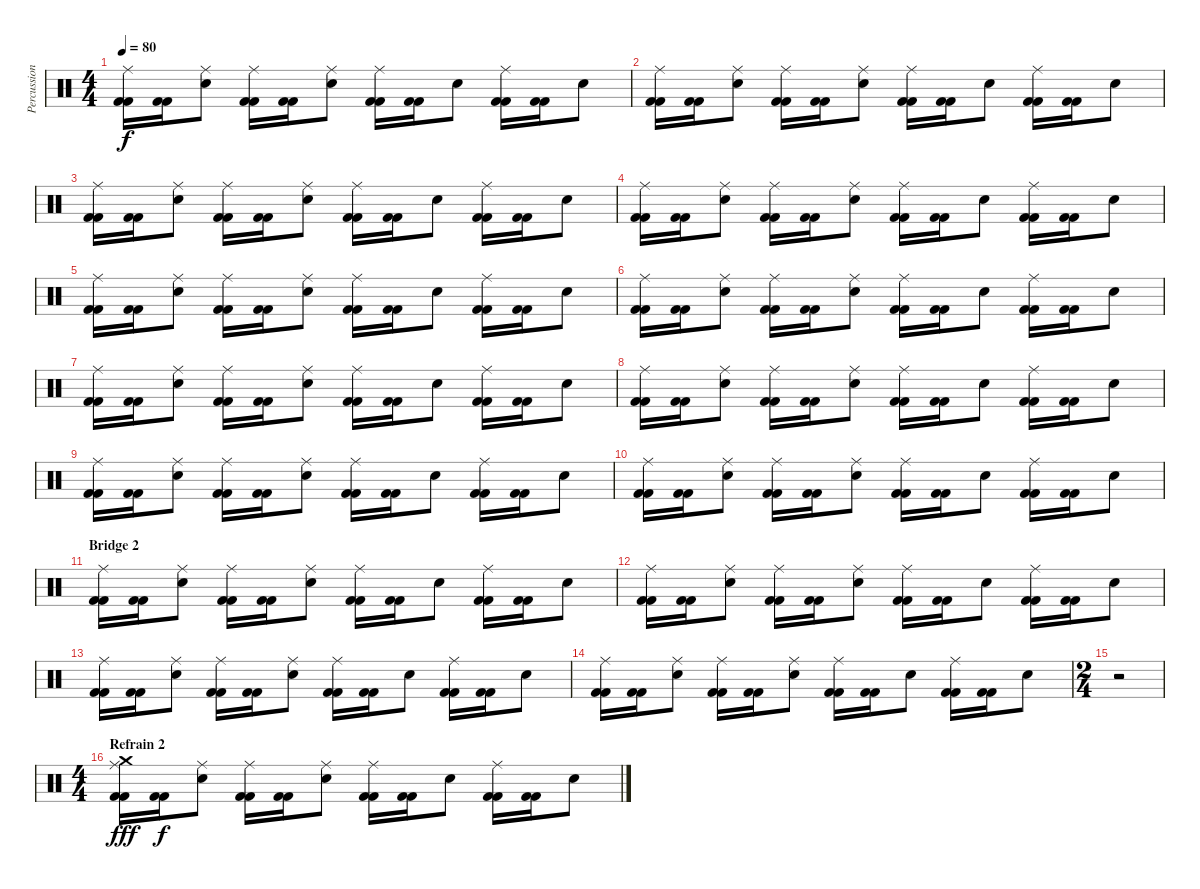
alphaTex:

\track ("Percussions" "Percussion") {instrument percussion}
\staff {score}
\articulation defaults
\ts (4 4)
\tempo 80
\clef neutral
\ks c
("Kick (hit) 2" "Kick (hit) 2" "Ride (middle)").16{dy f} ("Kick (hit) 2" "Kick (hit) 2").16 ("Snare (hit) 2" "Ride (middle)").8 ("Kick (hit) 2" "Kick (hit) 2" "Ride (middle)").16 ("Kick (hit) 2" "Kick (hit) 2").16 ("Snare (hit) 2" "Ride (middle)").8 ("Kick (hit) 2" "Kick (hit) 2" "Ride (middle)").16 ("Kick (hit) 2" "Kick (hit) 2").16 "Snare (hit) 2".8 ("Kick (hit) 2" "Kick (hit) 2" "Ride (middle)").16 ("Kick (hit) 2" "Kick (hit) 2").16 "Snare (hit) 2".8 |
("Kick (hit) 2" "Kick (hit) 2" "Ride (middle)").16 ("Kick (hit) 2" "Kick (hit) 2").16 ("Snare (hit) 2" "Ride (middle)").8 ("Kick (hit) 2" "Kick (hit) 2" "Ride (middle)").16 ("Kick (hit) 2" "Kick (hit) 2").16 ("Snare (hit) 2" "Ride (middle)").8 ("Kick (hit) 2" "Kick (hit) 2" "Ride (middle)").16 ("Kick (hit) 2" "Kick (hit) 2").16 "Snare (hit) 2".8 ("Kick (hit) 2" "Kick (hit) 2" "Ride (middle)").16 ("Kick (hit) 2" "Kick (hit) 2").16 "Snare (hit) 2".8 |
("Kick (hit) 2" "Kick (hit) 2" "Ride (middle)").16 ("Kick (hit) 2" "Kick (hit) 2").16 ("Snare (hit) 2" "Ride (middle)").8 ("Kick (hit) 2" "Kick (hit) 2" "Ride (middle)").16 ("Kick (hit) 2" "Kick (hit) 2").16 ("Snare (hit) 2" "Ride (middle)").8 ("Kick (hit) 2" "Kick (hit) 2" "Ride (middle)").16 ("Kick (hit) 2" "Kick (hit) 2").16 "Snare (hit) 2".8 ("Kick (hit) 2" "Kick (hit) 2" "Ride (middle)").16 ("Kick (hit) 2" "Kick (hit) 2").16 "Snare (hit) 2".8 |
("Kick (hit) 2" "Kick (hit) 2" "Ride (middle)").16 ("Kick (hit) 2" "Kick (hit) 2").16 ("Snare (hit) 2" "Ride (middle)").8 ("Kick (hit) 2" "Kick (hit) 2" "Ride (middle)").16 ("Kick (hit) 2" "Kick (hit) 2").16 ("Snare (hit) 2" "Ride (middle)").8 ("Kick (hit) 2" "Kick (hit) 2" "Ride (middle)").16 ("Kick (hit) 2" "Kick (hit) 2").16 "Snare (hit) 2".8 ("Kick (hit) 2" "Kick (hit) 2" "Ride (middle)").16 ("Kick (hit) 2" "Kick (hit) 2").16 "Snare (hit) 2".8 |
("Kick (hit) 2" "Kick (hit) 2" "Ride (middle)").16 ("Kick (hit) 2" "Kick (hit) 2").16 ("Snare (hit) 2" "Ride (middle)").8 ("Kick (hit) 2" "Kick (hit) 2" "Ride (middle)").16 ("Kick (hit) 2" "Kick (hit) 2").16 ("Snare (hit) 2" "Ride (middle)").8 ("Kick (hit) 2" "Kick (hit) 2" "Ride (middle)").16 ("Kick (hit) 2" "Kick (hit) 2").16 "Snare (hit) 2".8 ("Kick (hit) 2" "Kick (hit) 2" "Ride (middle)").16 ("Kick (hit) 2" "Kick (hit) 2").16 "Snare (hit) 2".8 |
("Kick (hit) 2" "Kick (hit) 2" "Ride (middle)").16 ("Kick (hit) 2" "Kick (hit) 2").16 ("Snare (hit) 2" "Ride (middle)").8 ("Kick (hit) 2" "Kick (hit) 2" "Ride (middle)").16 ("Kick (hit) 2" "Kick (hit) 2").16 ("Snare (hit) 2" "Ride (middle)").8 ("Kick (hit) 2" "Kick (hit) 2" "Ride (middle)").16 ("Kick (hit) 2" "Kick (hit) 2").16 "Snare (hit) 2".8 ("Kick (hit) 2" "Kick (hit) 2" "Ride (middle)").16 ("Kick (hit) 2" "Kick (hit) 2").16 "Snare (hit) 2".8 |
("Kick (hit) 2" "Kick (hit) 2" "Ride (middle)").16 ("Kick (hit) 2" "Kick (hit) 2").16 ("Snare (hit) 2" "Ride (middle)").8 ("Kick (hit) 2" "Kick (hit) 2" "Ride (middle)").16 ("Kick (hit) 2" "Kick (hit) 2").16 ("Snare (hit) 2" "Ride (middle)").8 ("Kick (hit) 2" "Kick (hit) 2" "Ride (middle)").16 ("Kick (hit) 2" "Kick (hit) 2").16 "Snare (hit) 2".8 ("Kick (hit) 2" "Kick (hit) 2" "Ride (middle)").16 ("Kick (hit) 2" "Kick (hit) 2").16 "Snare (hit) 2".8 |
("Kick (hit) 2" "Kick (hit) 2" "Ride (middle)").16 ("Kick (hit) 2" "Kick (hit) 2").16 ("Snare (hit) 2" "Ride (middle)").8 ("Kick (hit) 2" "Kick (hit) 2" "Ride (middle)").16 ("Kick (hit) 2" "Kick (hit) 2").16 ("Snare (hit) 2" "Ride (middle)").8 ("Kick (hit) 2" "Kick (hit) 2" "Ride (middle)").16 ("Kick (hit) 2" "Kick (hit) 2").16 "Snare (hit) 2".8 ("Kick (hit) 2" "Kick (hit) 2" "Ride (middle)").16 ("Kick (hit) 2" "Kick (hit) 2").16 "Snare (hit) 2".8 |
("Kick (hit) 2" "Kick (hit) 2" "Ride (middle)").16 ("Kick (hit) 2" "Kick (hit) 2").16 ("Snare (hit) 2" "Ride (middle)").8 ("Kick (hit) 2" "Kick (hit) 2" "Ride (middle)").16 ("Kick (hit) 2" "Kick (hit) 2").16 ("Snare (hit) 2" "Ride (middle)").8 ("Kick (hit) 2" "Kick (hit) 2" "Ride (middle)").16 ("Kick (hit) 2" "Kick (hit) 2").16 "Snare (hit) 2".8 ("Kick (hit) 2" "Kick (hit) 2" "Ride (middle)").16 ("Kick (hit) 2" "Kick (hit) 2").16 "Snare (hit) 2".8 |
("Kick (hit) 2" "Kick (hit) 2" "Ride (middle)").16 ("Kick (hit) 2" "Kick (hit) 2").16 ("Snare (hit) 2" "Ride (middle)").8 ("Kick (hit) 2" "Kick (hit) 2" "Ride (middle)").16 ("Kick (hit) 2" "Kick (hit) 2").16 ("Snare (hit) 2" "Ride (middle)").8 ("Kick (hit) 2" "Kick (hit) 2" "Ride (middle)").16 ("Kick (hit) 2" "Kick (hit) 2").16 "Snare (hit) 2".8 ("Kick (hit) 2" "Kick (hit) 2" "Ride (middle)").16 ("Kick (hit) 2" "Kick (hit) 2").16 "Snare (hit) 2".8 |
\section ("" "Bridge 2")
("Kick (hit) 2" "Kick (hit) 2" "Ride (middle)").16 ("Kick (hit) 2" "Kick (hit) 2").16 ("Snare (hit) 2" "Ride (middle)").8 ("Kick (hit) 2" "Kick (hit) 2" "Ride (middle)").16 ("Kick (hit) 2" "Kick (hit) 2").16 ("Snare (hit) 2" "Ride (middle)").8 ("Kick (hit) 2" "Kick (hit) 2" "Ride (middle)").16 ("Kick (hit) 2" "Kick (hit) 2").16 "Snare (hit) 2".8 ("Kick (hit) 2" "Kick (hit) 2" "Ride (middle)").16 ("Kick (hit) 2" "Kick (hit) 2").16 "Snare (hit) 2".8 |
("Kick (hit) 2" "Kick (hit) 2" "Ride (middle)").16 ("Kick (hit) 2" "Kick (hit) 2").16 ("Snare (hit) 2" "Ride (middle)").8 ("Kick (hit) 2" "Kick (hit) 2" "Ride (middle)").16 ("Kick (hit) 2" "Kick (hit) 2").16 ("Snare (hit) 2" "Ride (middle)").8 ("Kick (hit) 2" "Kick (hit) 2" "Ride (middle)").16 ("Kick (hit) 2" "Kick (hit) 2").16 "Snare (hit) 2".8 ("Kick (hit) 2" "Kick (hit) 2" "Ride (middle)").16 ("Kick (hit) 2" "Kick (hit) 2").16 "Snare (hit) 2".8 |
("Kick (hit) 2" "Kick (hit) 2" "Ride (middle)").16 ("Kick (hit) 2" "Kick (hit) 2").16 ("Snare (hit) 2" "Ride (middle)").8 ("Kick (hit) 2" "Kick (hit) 2" "Ride (middle)").16 ("Kick (hit) 2" "Kick (hit) 2").16 ("Snare (hit) 2" "Ride (middle)").8 ("Kick (hit) 2" "Kick (hit) 2" "Ride (middle)").16 ("Kick (hit) 2" "Kick (hit) 2").16 "Snare (hit) 2".8 ("Kick (hit) 2" "Kick (hit) 2" "Ride (middle)").16 ("Kick (hit) 2" "Kick (hit) 2").16 "Snare (hit) 2".8 |
("Kick (hit) 2" "Kick (hit) 2" "Ride (middle)").16 ("Kick (hit) 2" "Kick (hit) 2").16 ("Snare (hit) 2" "Ride (middle)").8 ("Kick (hit) 2" "Kick (hit) 2" "Ride (middle)").16 ("Kick (hit) 2" "Kick (hit) 2").16 ("Snare (hit) 2" "Ride (middle)").8 ("Kick (hit) 2" "Kick (hit) 2" "Ride (middle)").16 ("Kick (hit) 2" "Kick (hit) 2").16 "Snare (hit) 2".8 ("Kick (hit) 2" "Kick (hit) 2" "Ride (middle)").16 ("Kick (hit) 2" "Kick (hit) 2").16 "Snare (hit) 2".8 |
\ts (2 4)
r.2 |
\ts (4 4)
\section ("" "Refrain 2")
("Crash medium (hit)" "Kick (hit) 2" "Kick (hit) 2" "Ride (middle)").16{dy fff} ("Kick (hit) 2" "Kick (hit) 2").16{dy f} ("Snare (hit) 2" "Ride (middle)").8 ("Kick (hit) 2" "Kick (hit) 2" "Ride (middle)").16 ("Kick (hit) 2" "Kick (hit) 2").16 ("Snare (hit) 2" "Ride (middle)").8 ("Kick (hit) 2" "Kick (hit) 2" "Ride (middle)").16 ("Kick (hit) 2" "Kick (hit) 2").16 "Snare (hit) 2".8 ("Kick (hit) 2" "Kick (hit) 2" "Ride (middle)").16 ("Kick (hit) 2" "Kick (hit) 2").16 "Snare (hit) 2".8
